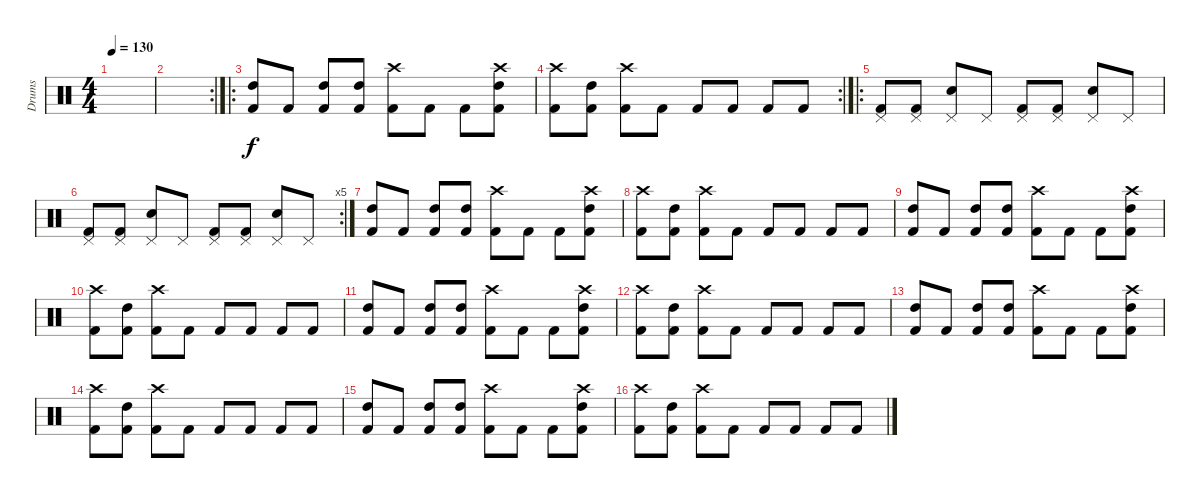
\track ("Drums" "Drums") {instrument percussion}
\staff {score}
\articulation defaults
\ts (4 4)
\tempo 130
\clef neutral
\ks c
|
\rc 2
|
\ro
("Kick (hit) 2" "High Tom (hit)").8 "Kick (hit) 2".8 ("Kick (hit) 2" "High Tom (hit)").8 ("Kick (hit) 2" "High Tom (hit)").8 ("Kick (hit) 2" "Crash high (hit)").8 "Kick (hit) 2".8 "Kick (hit) 2".8 ("Kick (hit) 2" "Crash high (hit)" "High Tom (hit)").8 |
\rc 2
("Kick (hit) 2" "Crash high (hit)").8 ("Kick (hit) 2" "High Tom (hit)").8 ("Kick (hit) 2" "Crash high (hit)").8 "Kick (hit) 2".8 "Kick (hit) 2".8 "Kick (hit) 2".8 "Kick (hit) 2".8 "Kick (hit) 2".8 |
\ro
("Pedal Hi-Hat (hit)" "Kick (hit) 2").8 ("Pedal Hi-Hat (hit)" "Kick (hit) 2").8 ("Pedal Hi-Hat (hit)" "Snare (hit) 2").8 "Pedal Hi-Hat (hit)".8 ("Pedal Hi-Hat (hit)" "Kick (hit) 2").8 ("Pedal Hi-Hat (hit)" "Kick (hit) 2").8 ("Pedal Hi-Hat (hit)" "Snare (hit) 2").8 "Pedal Hi-Hat (hit)".8 |
\rc 5
("Pedal Hi-Hat (hit)" "Kick (hit) 2").8 ("Pedal Hi-Hat (hit)" "Kick (hit) 2").8 ("Pedal Hi-Hat (hit)" "Snare (hit) 2").8 "Pedal Hi-Hat (hit)".8 ("Pedal Hi-Hat (hit)" "Kick (hit) 2").8 ("Pedal Hi-Hat (hit)" "Kick (hit) 2").8 ("Pedal Hi-Hat (hit)" "Snare (hit) 2").8 "Pedal Hi-Hat (hit)".8 |
("Kick (hit) 2" "High Tom (hit)").8 "Kick (hit) 2".8 ("Kick (hit) 2" "High Tom (hit)").8 ("Kick (hit) 2" "High Tom (hit)").8 ("Kick (hit) 2" "Crash high (hit)").8 "Kick (hit) 2".8 "Kick (hit) 2".8 ("Kick (hit) 2" "Crash high (hit)" "High Tom (hit)").8 |
("Kick (hit) 2" "Crash high (hit)").8 ("Kick (hit) 2" "High Tom (hit)").8 ("Kick (hit) 2" "Crash high (hit)").8 "Kick (hit) 2".8 "Kick (hit) 2".8 "Kick (hit) 2".8 "Kick (hit) 2".8 "Kick (hit) 2".8 |
("Kick (hit) 2" "High Tom (hit)").8 "Kick (hit) 2".8 ("Kick (hit) 2" "High Tom (hit)").8 ("Kick (hit) 2" "High Tom (hit)").8 ("Kick (hit) 2" "Crash high (hit)").8 "Kick (hit) 2".8 "Kick (hit) 2".8 ("Kick (hit) 2" "Crash high (hit)" "High Tom (hit)").8 |
("Kick (hit) 2" "Crash high (hit)").8 ("Kick (hit) 2" "High Tom (hit)").8 ("Kick (hit) 2" "Crash high (hit)").8 "Kick (hit) 2".8 "Kick (hit) 2".8 "Kick (hit) 2".8 "Kick (hit) 2".8 "Kick (hit) 2".8 |
("Kick (hit) 2" "High Tom (hit)").8 "Kick (hit) 2".8 ("Kick (hit) 2" "High Tom (hit)").8 ("Kick (hit) 2" "High Tom (hit)").8 ("Kick (hit) 2" "Crash high (hit)").8 "Kick (hit) 2".8 "Kick (hit) 2".8 ("Kick (hit) 2" "Crash high (hit)" "High Tom (hit)").8 |
("Kick (hit) 2" "Crash high (hit)").8 ("Kick (hit) 2" "High Tom (hit)").8 ("Kick (hit) 2" "Crash high (hit)").8 "Kick (hit) 2".8 "Kick (hit) 2".8 "Kick (hit) 2".8 "Kick (hit) 2".8 "Kick (hit) 2".8 |
("Kick (hit) 2" "High Tom (hit)").8 "Kick (hit) 2".8 ("Kick (hit) 2" "High Tom (hit)").8 ("Kick (hit) 2" "High Tom (hit)").8 ("Kick (hit) 2" "Crash high (hit)").8 "Kick (hit) 2".8 "Kick (hit) 2".8 ("Kick (hit) 2" "Crash high (hit)" "High Tom (hit)").8 |
("Kick (hit) 2" "Crash high (hit)").8 ("Kick (hit) 2" "High Tom (hit)").8 ("Kick (hit) 2" "Crash high (hit)").8 "Kick (hit) 2".8 "Kick (hit) 2".8 "Kick (hit) 2".8 "Kick (hit) 2".8 "Kick (hit) 2".8 |
("Kick (hit) 2" "High Tom (hit)").8 "Kick (hit) 2".8 ("Kick (hit) 2" "High Tom (hit)").8 ("Kick (hit) 2" "High Tom (hit)").8 ("Kick (hit) 2" "Crash high (hit)").8 "Kick (hit) 2".8 "Kick (hit) 2".8 ("Kick (hit) 2" "Crash high (hit)" "High Tom (hit)").8 |
("Kick (hit) 2" "Crash high (hit)").8 ("Kick (hit) 2" "High Tom (hit)").8 ("Kick (hit) 2" "Crash high (hit)").8 "Kick (hit) 2".8 "Kick (hit) 2".8 "Kick (hit) 2".8 "Kick (hit) 2".8 "Kick (hit) 2".8
